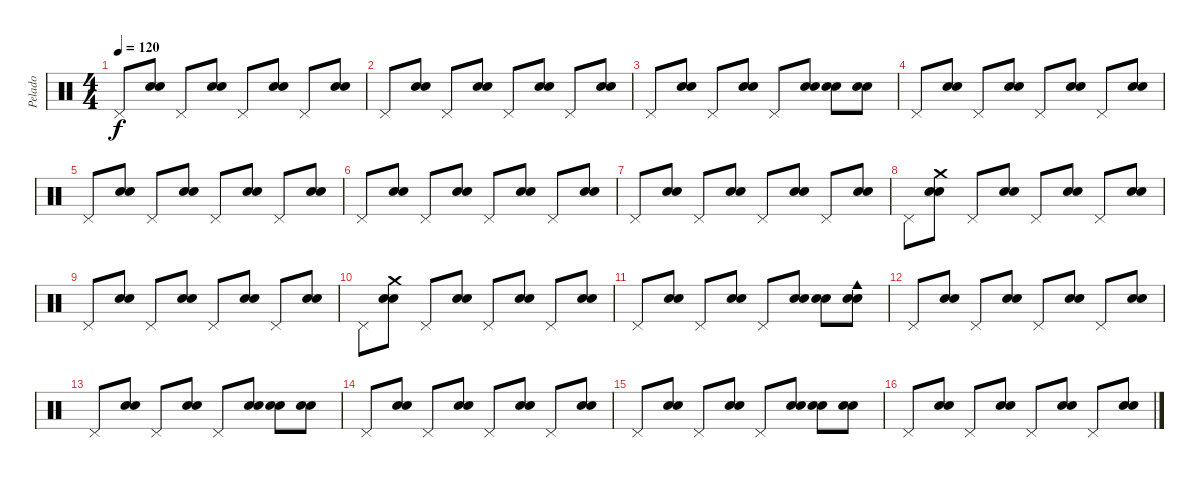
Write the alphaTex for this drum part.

\track ("Pelado" "Pelado") {instrument percussion}
\staff {score}
\articulation defaults
\ts (4 4)
\tempo 120
\clef neutral
\ks c "Pedal Hi-Hat (hit)".8{dy f}
("Electric Snare (hit)" "Electric Snare (hit)").8 "Pedal Hi-Hat (hit)".8 ("Electric Snare (hit)" "Electric Snare (hit)").8 "Pedal Hi-Hat (hit)".8 ("Electric Snare (hit)" "Electric Snare (hit)").8 "Pedal Hi-Hat (hit)".8 ("Electric Snare (hit)" "Electric Snare (hit)").8 |
"Pedal Hi-Hat (hit)".8 ("Electric Snare (hit)" "Electric Snare (hit)").8 "Pedal Hi-Hat (hit)".8 ("Electric Snare (hit)" "Electric Snare (hit)").8 "Pedal Hi-Hat (hit)".8 ("Electric Snare (hit)" "Electric Snare (hit)").8 "Pedal Hi-Hat (hit)".8 ("Electric Snare (hit)" "Electric Snare (hit)").8 |
"Pedal Hi-Hat (hit)".8 ("Electric Snare (hit)" "Electric Snare (hit)").8 "Pedal Hi-Hat (hit)".8 ("Electric Snare (hit)" "Electric Snare (hit)").8 "Pedal Hi-Hat (hit)".8 ("Electric Snare (hit)" "Electric Snare (hit)").8 ("Snare (hit) 2" "Snare (hit) 2").8 ("Electric Snare (hit)" "Electric Snare (hit)").8 |
"Pedal Hi-Hat (hit)".8 ("Electric Snare (hit)" "Electric Snare (hit)").8 "Pedal Hi-Hat (hit)".8 ("Electric Snare (hit)" "Electric Snare (hit)").8 "Pedal Hi-Hat (hit)".8 ("Electric Snare (hit)" "Electric Snare (hit)").8 "Pedal Hi-Hat (hit)".8 ("Electric Snare (hit)" "Electric Snare (hit)").8 |
"Pedal Hi-Hat (hit)".8 ("Electric Snare (hit)" "Electric Snare (hit)").8 "Pedal Hi-Hat (hit)".8 ("Electric Snare (hit)" "Electric Snare (hit)").8 "Pedal Hi-Hat (hit)".8 ("Electric Snare (hit)" "Electric Snare (hit)").8 "Pedal Hi-Hat (hit)".8 ("Electric Snare (hit)" "Electric Snare (hit)").8 |
"Pedal Hi-Hat (hit)".8 ("Electric Snare (hit)" "Electric Snare (hit)").8 "Pedal Hi-Hat (hit)".8 ("Electric Snare (hit)" "Electric Snare (hit)").8 "Pedal Hi-Hat (hit)".8 ("Electric Snare (hit)" "Electric Snare (hit)").8 "Pedal Hi-Hat (hit)".8 ("Electric Snare (hit)" "Electric Snare (hit)").8 |
"Pedal Hi-Hat (hit)".8 ("Electric Snare (hit)" "Electric Snare (hit)").8 "Pedal Hi-Hat (hit)".8 ("Electric Snare (hit)" "Electric Snare (hit)").8 "Pedal Hi-Hat (hit)".8 ("Electric Snare (hit)" "Electric Snare (hit)").8 "Pedal Hi-Hat (hit)".8 ("Electric Snare (hit)" "Electric Snare (hit)").8 |
"Pedal Hi-Hat (hit)".8 ("Crash medium (hit)" "Electric Snare (hit)" "Electric Snare (hit)").8 "Pedal Hi-Hat (hit)".8 ("Electric Snare (hit)" "Electric Snare (hit)").8 "Pedal Hi-Hat (hit)".8 ("Electric Snare (hit)" "Electric Snare (hit)").8 "Pedal Hi-Hat (hit)".8 ("Electric Snare (hit)" "Electric Snare (hit)").8 |
"Pedal Hi-Hat (hit)".8 ("Electric Snare (hit)" "Electric Snare (hit)").8 "Pedal Hi-Hat (hit)".8 ("Electric Snare (hit)" "Electric Snare (hit)").8 "Pedal Hi-Hat (hit)".8 ("Electric Snare (hit)" "Electric Snare (hit)").8 "Pedal Hi-Hat (hit)".8 ("Electric Snare (hit)" "Electric Snare (hit)").8 |
"Pedal Hi-Hat (hit)".8 ("Crash medium (hit)" "Electric Snare (hit)" "Electric Snare (hit)").8 "Pedal Hi-Hat (hit)".8 ("Electric Snare (hit)" "Electric Snare (hit)").8 "Pedal Hi-Hat (hit)".8 ("Electric Snare (hit)" "Electric Snare (hit)").8 "Pedal Hi-Hat (hit)".8 ("Electric Snare (hit)" "Electric Snare (hit)").8 |
"Pedal Hi-Hat (hit)".8 ("Electric Snare (hit)" "Electric Snare (hit)").8 "Pedal Hi-Hat (hit)".8 ("Electric Snare (hit)" "Electric Snare (hit)").8 "Pedal Hi-Hat (hit)".8 ("Electric Snare (hit)" "Electric Snare (hit)").8 ("Snare (hit) 2" "Snare (hit) 2").8 ("Cowbell medium (hit)" "Electric Snare (hit)" "Electric Snare (hit)").8 |
"Pedal Hi-Hat (hit)".8 ("Electric Snare (hit)" "Electric Snare (hit)").8 "Pedal Hi-Hat (hit)".8 ("Electric Snare (hit)" "Electric Snare (hit)").8 "Pedal Hi-Hat (hit)".8 ("Electric Snare (hit)" "Electric Snare (hit)").8 "Pedal Hi-Hat (hit)".8 ("Electric Snare (hit)" "Electric Snare (hit)").8 |
"Pedal Hi-Hat (hit)".8 ("Electric Snare (hit)" "Electric Snare (hit)").8 "Pedal Hi-Hat (hit)".8 ("Electric Snare (hit)" "Electric Snare (hit)").8 "Pedal Hi-Hat (hit)".8 ("Electric Snare (hit)" "Electric Snare (hit)").8 ("Electric Snare (hit)" "Electric Snare (hit)").8 ("Electric Snare (hit)" "Electric Snare (hit)").8 |
"Pedal Hi-Hat (hit)".8 ("Electric Snare (hit)" "Electric Snare (hit)").8 "Pedal Hi-Hat (hit)".8 ("Electric Snare (hit)" "Electric Snare (hit)").8 "Pedal Hi-Hat (hit)".8 ("Electric Snare (hit)" "Electric Snare (hit)").8 "Pedal Hi-Hat (hit)".8 ("Electric Snare (hit)" "Electric Snare (hit)").8 |
"Pedal Hi-Hat (hit)".8 ("Electric Snare (hit)" "Electric Snare (hit)").8 "Pedal Hi-Hat (hit)".8 ("Electric Snare (hit)" "Electric Snare (hit)").8 "Pedal Hi-Hat (hit)".8 ("Electric Snare (hit)" "Electric Snare (hit)").8 ("Electric Snare (hit)" "Electric Snare (hit)").8 ("Electric Snare (hit)" "Electric Snare (hit)").8 |
"Pedal Hi-Hat (hit)".8 ("Electric Snare (hit)" "Electric Snare (hit)").8 "Pedal Hi-Hat (hit)".8 ("Electric Snare (hit)" "Electric Snare (hit)").8 "Pedal Hi-Hat (hit)".8 ("Electric Snare (hit)" "Electric Snare (hit)").8 "Pedal Hi-Hat (hit)".8 ("Electric Snare (hit)" "Electric Snare (hit)").8
